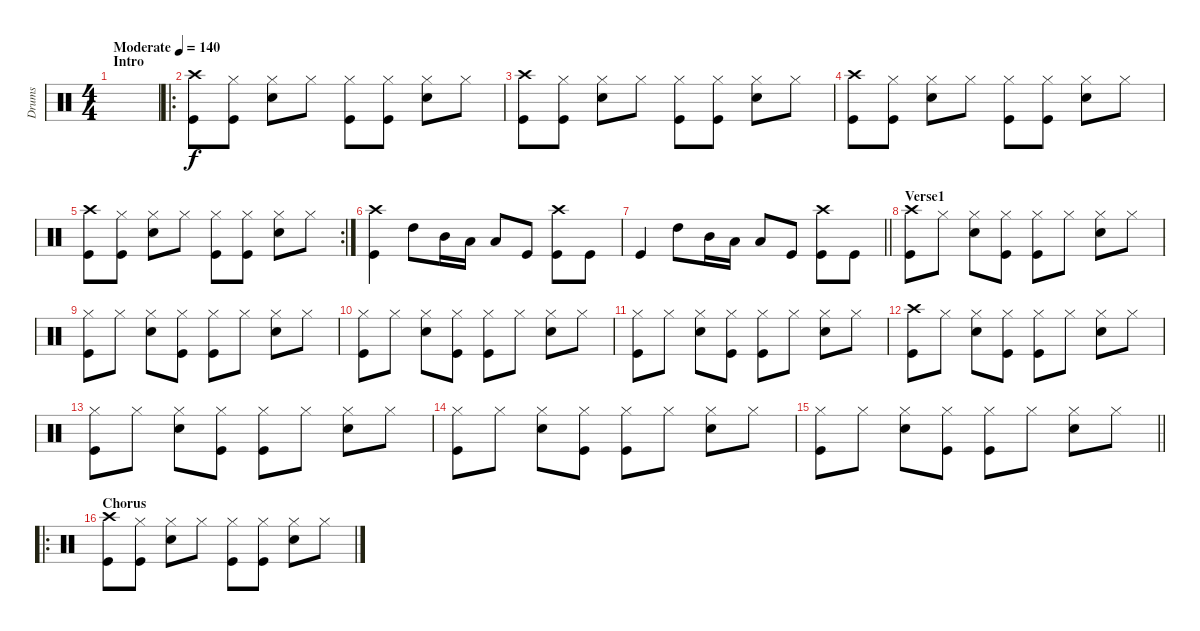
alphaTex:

\track ("Drums" "Drums") {instrument percussion}
\staff {score}
\articulation defaults
\ts (4 4)
\section ("" "Intro")
\tempo (140 "Moderate")
\clef neutral
\ks c
|
\ro
("Crash high (hit)" "Kick (hit)").8 ("Hi-Hat (closed)" "Kick (hit)").8 ("Snare (hit) 2" "Hi-Hat (closed)").8 "Hi-Hat (closed)".8 ("Hi-Hat (closed)" "Kick (hit)").8 ("Hi-Hat (closed)" "Kick (hit)").8 ("Snare (hit) 2" "Hi-Hat (closed)").8 "Hi-Hat (closed)".8 |
("Crash high (hit)" "Kick (hit)").8 ("Hi-Hat (closed)" "Kick (hit)").8 ("Snare (hit) 2" "Hi-Hat (closed)").8 "Hi-Hat (closed)".8 ("Hi-Hat (closed)" "Kick (hit)").8 ("Hi-Hat (closed)" "Kick (hit)").8 ("Snare (hit) 2" "Hi-Hat (closed)").8 "Hi-Hat (closed)".8 |
("Crash high (hit)" "Kick (hit)").8 ("Hi-Hat (closed)" "Kick (hit)").8 ("Snare (hit) 2" "Hi-Hat (closed)").8 "Hi-Hat (closed)".8 ("Hi-Hat (closed)" "Kick (hit)").8 ("Hi-Hat (closed)" "Kick (hit)").8 ("Snare (hit) 2" "Hi-Hat (closed)").8 "Hi-Hat (closed)".8 |
\rc 2
("Crash high (hit)" "Kick (hit)").8 ("Hi-Hat (closed)" "Kick (hit)").8 ("Snare (hit) 2" "Hi-Hat (closed)").8 "Hi-Hat (closed)".8 ("Hi-Hat (closed)" "Kick (hit)").8 ("Hi-Hat (closed)" "Kick (hit)").8 ("Snare (hit) 2" "Hi-Hat (closed)").8 "Hi-Hat (closed)".8 |
("Crash high (hit)" "Kick (hit)").4 "High Tom (hit)".8 "Mid Tom (hit)".16 "Low Tom (hit)".16 "Low Floor Tom (hit)".8 "Kick (hit)".8 ("Crash high (hit)" "Kick (hit)").8 "Kick (hit)".8 |
\barLineRight lightlight "Kick (hit)".4 "High Tom (hit)".8 "Mid Tom (hit)".16 "Low Tom (hit)".16 "Low Floor Tom (hit)".8 "Kick (hit)".8
("Crash high (hit)" "Kick (hit)").8 "Kick (hit)".8 |
\section ("" "Verse1")
("Crash high (hit)" "Kick (hit)").8 "Hi-Hat (closed)".8 ("Snare (hit) 2" "Hi-Hat (closed)").8 ("Hi-Hat (closed)" "Kick (hit)").8 ("Hi-Hat (closed)" "Kick (hit)").8 "Hi-Hat (closed)".8 ("Snare (hit) 2" "Hi-Hat (closed)").8 "Hi-Hat (closed)".8 |
("Hi-Hat (closed)" "Kick (hit)").8 "Hi-Hat (closed)".8 ("Snare (hit) 2" "Hi-Hat (closed)").8 ("Hi-Hat (closed)" "Kick (hit)").8 ("Hi-Hat (closed)" "Kick (hit)").8 "Hi-Hat (closed)".8 ("Snare (hit) 2" "Hi-Hat (closed)").8 "Hi-Hat (closed)".8 |
("Hi-Hat (closed)" "Kick (hit)").8 "Hi-Hat (closed)".8 ("Snare (hit) 2" "Hi-Hat (closed)").8 ("Hi-Hat (closed)" "Kick (hit)").8 ("Hi-Hat (closed)" "Kick (hit)").8 "Hi-Hat (closed)".8 ("Snare (hit) 2" "Hi-Hat (closed)").8 "Hi-Hat (closed)".8 |
("Hi-Hat (closed)" "Kick (hit)").8 "Hi-Hat (closed)".8 ("Snare (hit) 2" "Hi-Hat (closed)").8 ("Hi-Hat (closed)" "Kick (hit)").8 ("Hi-Hat (closed)" "Kick (hit)").8 "Hi-Hat (closed)".8 ("Snare (hit) 2" "Hi-Hat (closed)").8 "Hi-Hat (closed)".8 |
("Crash high (hit)" "Kick (hit)").8 "Hi-Hat (closed)".8 ("Snare (hit) 2" "Hi-Hat (closed)").8 ("Hi-Hat (closed)" "Kick (hit)").8 ("Hi-Hat (closed)" "Kick (hit)").8 "Hi-Hat (closed)".8 ("Snare (hit) 2" "Hi-Hat (closed)").8 "Hi-Hat (closed)".8 |
("Hi-Hat (closed)" "Kick (hit)").8 "Hi-Hat (closed)".8 ("Snare (hit) 2" "Hi-Hat (closed)").8 ("Hi-Hat (closed)" "Kick (hit)").8 ("Hi-Hat (closed)" "Kick (hit)").8 "Hi-Hat (closed)".8 ("Snare (hit) 2" "Hi-Hat (closed)").8 "Hi-Hat (closed)".8 |
("Hi-Hat (closed)" "Kick (hit)").8 "Hi-Hat (closed)".8 ("Snare (hit) 2" "Hi-Hat (closed)").8 ("Hi-Hat (closed)" "Kick (hit)").8 ("Hi-Hat (closed)" "Kick (hit)").8 "Hi-Hat (closed)".8 ("Snare (hit) 2" "Hi-Hat (closed)").8 "Hi-Hat (closed)".8 |
\barLineRight lightlight
("Hi-Hat (closed)" "Kick (hit)").8 "Hi-Hat (closed)".8 ("Snare (hit) 2" "Hi-Hat (closed)").8 ("Hi-Hat (closed)" "Kick (hit)").8 ("Hi-Hat (closed)" "Kick (hit)").8 "Hi-Hat (closed)".8 ("Snare (hit) 2" "Hi-Hat (closed)").8 "Hi-Hat (closed)".8 |
\ro
\section ("" "Chorus")
("Crash high (hit)" "Kick (hit)").8 ("Hi-Hat (closed)" "Kick (hit)").8 ("Snare (hit) 2" "Hi-Hat (closed)").8 "Hi-Hat (closed)".8 ("Hi-Hat (closed)" "Kick (hit)").8 ("Hi-Hat (closed)" "Kick (hit)").8 ("Snare (hit) 2" "Hi-Hat (closed)").8 "Hi-Hat (closed)".8
